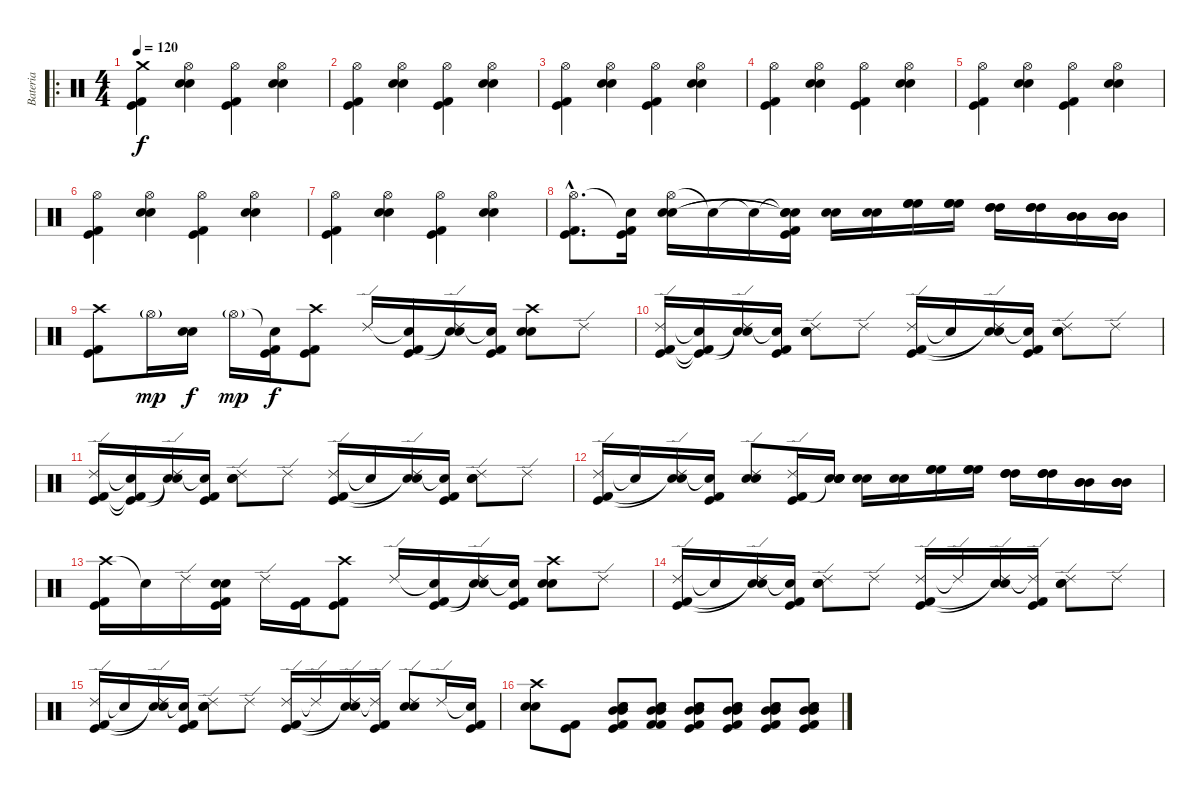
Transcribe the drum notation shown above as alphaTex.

\track ("Bateria" "Bateria") {instrument percussion}
\staff {score}
\articulation defaults
\ro
\ts (4 4)
\tempo 120
\clef neutral
\ks c
("Crash medium (hit)" "Kick (hit)" "Kick (hit) 2").4{dy f} ("Hi-Hat (open)" "Electric Snare (hit)" "Snare (hit) 2").4 ("Hi-Hat (open)" "Kick (hit)" "Kick (hit) 2").4 ("Hi-Hat (open)" "Electric Snare (hit)" "Snare (hit) 2").4 |
("Hi-Hat (open)" "Kick (hit)" "Kick (hit) 2").4 ("Hi-Hat (open)" "Electric Snare (hit)" "Snare (hit) 2").4 ("Hi-Hat (open)" "Kick (hit)" "Kick (hit) 2").4 ("Hi-Hat (open)" "Electric Snare (hit)" "Snare (hit) 2").4 |
("Hi-Hat (open)" "Kick (hit)" "Kick (hit) 2").4 ("Hi-Hat (open)" "Electric Snare (hit)" "Snare (hit) 2").4 ("Hi-Hat (open)" "Kick (hit)" "Kick (hit) 2").4 ("Hi-Hat (open)" "Electric Snare (hit)" "Snare (hit) 2").4 |
("Hi-Hat (open)" "Kick (hit)" "Kick (hit) 2").4 ("Hi-Hat (open)" "Electric Snare (hit)" "Snare (hit) 2").4 ("Hi-Hat (open)" "Kick (hit)" "Kick (hit) 2").4 ("Hi-Hat (open)" "Electric Snare (hit)" "Snare (hit) 2").4 |
("Hi-Hat (open)" "Kick (hit)" "Kick (hit) 2").4 ("Hi-Hat (open)" "Electric Snare (hit)" "Snare (hit) 2").4 ("Hi-Hat (open)" "Kick (hit)" "Kick (hit) 2").4 ("Hi-Hat (open)" "Electric Snare (hit)" "Snare (hit) 2").4 |
("Hi-Hat (open)" "Kick (hit)" "Kick (hit) 2").4 ("Hi-Hat (open)" "Electric Snare (hit)" "Snare (hit) 2").4 ("Hi-Hat (open)" "Kick (hit)" "Kick (hit) 2").4 ("Hi-Hat (open)" "Electric Snare (hit)" "Snare (hit) 2").4 |
("Hi-Hat (open)" "Kick (hit)" "Kick (hit) 2").4 ("Hi-Hat (open)" "Electric Snare (hit)" "Snare (hit) 2").4 ("Hi-Hat (open)" "Kick (hit)" "Kick (hit) 2").4 ("Hi-Hat (open)" "Electric Snare (hit)" "Snare (hit) 2").4 |
("Hi-Hat (open)"{hac} "Kick (hit)"{hac} "Kick (hit) 2"{hac}).8{d} ("Snare (hit)"{t} "Kick (hit) 2" "Kick (hit)").16 ("Hi-Hat (open)" "Electric Snare (hit)" "Snare (hit) 2").16 "Snare (hit)"{t}.16 "Snare (hit)"{t}.16 ("Snare (hit)"{t} "Snare (hit)"{t} "Snare (hit)"{t} "Kick (hit)" "Kick (hit) 2").16 ("Electric Snare (hit)" "Snare (hit) 2").16 ("Electric Snare (hit)" "Snare (hit) 2").16 ("High Floor Tom (hit)" "High Floor Tom (hit)" "High Floor Tom (hit)").16 ("High Floor Tom (hit)" "High Floor Tom (hit)" "High Floor Tom (hit)").16 ("High Tom (hit)" "High Tom (hit)" "High Tom (hit)").16 ("High Tom (hit)" "High Tom (hit)" "High Tom (hit)").16 ("Mid Tom (hit)" "Mid Tom (hit)" "Mid Tom (hit)").16 ("Mid Tom (hit)" "Mid Tom (hit)" "Mid Tom (hit)").16 |
("Crash high (hit)" "Kick (hit)" "Kick (hit) 2").8 "Hi-Hat (open)"{g}.16{dy mp} ("Electric Snare (hit)" "Snare (hit) 2").16{dy f} "Hi-Hat (open)"{g}.16{dy mp} ("Snare (hit)"{t} "Kick (hit)" "Kick (hit) 2").16{dy f} ("Crash high (hit)" "Kick (hit) 2" "Kick (hit)").8 "Ride (edge) 2".16 ("Snare (hit)"{t} "Kick (hit)" "Kick (hit) 2").16 ("Ride (edge) 2" "Snare (hit)"{t} "Snare (hit)"{t}).16 ("Snare (hit)"{t} "Kick (hit)" "Kick (hit) 2").16 ("Crash high (hit)" "Snare (hit) 2" "Electric Snare (hit)").8 "Ride (edge) 2".8 |
("Ride (edge) 2" "Kick (hit)" "Kick (hit) 2").16 ("Snare (hit)"{t} "Kick (hit)"{t} "Kick (hit) 2"{t}).16 ("Ride (edge) 2" "Snare (hit)"{t} "Snare (hit)"{t}).16 ("Snare (hit)"{t} "Kick (hit)" "Kick (hit) 2").16 ("Ride (edge) 2" "Electric Snare (hit)" "Snare (hit) 2").8 "Ride (edge) 2".8 ("Ride (edge) 2" "Kick (hit)" "Kick (hit) 2").16 "Snare (hit)"{t}.16 ("Ride (edge) 2" "Snare (hit)"{t} "Snare (hit)"{t}).16 ("Snare (hit)"{t} "Kick (hit) 2" "Kick (hit)").16 ("Ride (edge) 2" "Electric Snare (hit)" "Snare (hit) 2").8 "Ride (edge) 2".8 |
("Ride (edge) 2" "Kick (hit)" "Kick (hit) 2").16 ("Snare (hit)"{t} "Kick (hit)"{t} "Kick (hit) 2"{t}).16 ("Ride (edge) 2" "Snare (hit)"{t} "Snare (hit)"{t}).16 ("Snare (hit)"{t} "Kick (hit)" "Kick (hit) 2").16 ("Ride (edge) 2" "Electric Snare (hit)" "Snare (hit) 2").8 "Ride (edge) 2".8 ("Ride (edge) 2" "Kick (hit)" "Kick (hit) 2").16 "Snare (hit)"{t}.16 ("Ride (edge) 2" "Snare (hit)"{t} "Snare (hit)"{t}).16 ("Snare (hit)"{t} "Kick (hit) 2" "Kick (hit)").16 ("Ride (edge) 2" "Electric Snare (hit)" "Snare (hit) 2").8 "Ride (edge) 2".8 |
("Ride (edge) 2" "Kick (hit)" "Kick (hit) 2").16 "Snare (hit)"{t}.16 ("Ride (edge) 2" "Snare (hit)"{t} "Snare (hit)"{t}).16 ("Snare (hit)"{t} "Kick (hit) 2" "Kick (hit)").16 ("Ride (edge) 2" "Electric Snare (hit)" "Snare (hit) 2").8 ("Ride (edge) 2" "Kick (hit)" "Kick (hit) 2").16 ("Electric Snare (hit)" "Snare (hit) 2" "Snare (hit)"{t} "Snare (hit)").16 ("Electric Snare (hit)" "Snare (hit) 2").16 ("Electric Snare (hit)" "Snare (hit) 2").16 ("High Floor Tom (hit)" "High Floor Tom (hit)" "High Floor Tom (hit)").16 ("High Floor Tom (hit)" "High Floor Tom (hit)" "High Floor Tom (hit)").16 ("High Tom (hit)" "High Tom (hit)" "High Tom (hit)").16 ("High Tom (hit)" "High Tom (hit)" "High Tom (hit)").16 ("Mid Tom (hit)" "Mid Tom (hit)" "Mid Tom (hit)").16 ("Mid Tom (hit)" "Mid Tom (hit)" "Mid Tom (hit)").16 |
("Crash high (hit)" "Kick (hit)" "Kick (hit) 2").16 "Snare (hit)"{t}.16 "Ride (edge) 2".16 ("Electric Snare (hit)" "Snare (hit) 2" "Kick (hit)" "Kick (hit) 2").16 "Ride (edge) 2".16 ("Kick (hit)" "Kick (hit) 2").16 ("Crash high (hit)" "Kick (hit) 2" "Kick (hit)").8 "Ride (edge) 2".16 ("Snare (hit)"{t} "Kick (hit)" "Kick (hit) 2").16 ("Ride (edge) 2" "Snare (hit)"{t} "Snare (hit)"{t}).16 ("Snare (hit)"{t} "Kick (hit)" "Kick (hit) 2").16 ("Crash high (hit)" "Electric Snare (hit)" "Snare (hit) 2").8 "Ride (edge) 2".8 |
("Ride (edge) 2" "Kick (hit)" "Kick (hit) 2").16 "Snare (hit)"{t}.16 ("Ride (edge) 2" "Snare (hit)"{t} "Snare (hit)"{t}).16 ("Snare (hit)"{t} "Kick (hit)" "Kick (hit) 2").16 ("Ride (edge) 2" "Electric Snare (hit)" "Snare (hit) 2").8 "Ride (edge) 2".8 ("Ride (edge) 2" "Kick (hit) 2" "Kick (hit)").16 "Ride (edge) 2"{t}.16 ("Ride (edge) 2" "Snare (hit)"{t} "Snare (hit)"{t}).16 ("Ride (edge) 2"{t} "Kick (hit)" "Kick (hit) 2").16 ("Ride (edge) 2" "Electric Snare (hit)" "Snare (hit) 2").8 "Ride (edge) 2".8 |
("Ride (edge) 2" "Kick (hit)" "Kick (hit) 2").16 "Snare (hit)"{t}.16 ("Ride (edge) 2" "Snare (hit)"{t} "Snare (hit)"{t}).16 ("Snare (hit)"{t} "Kick (hit)" "Kick (hit) 2").16 ("Ride (edge) 2" "Electric Snare (hit)" "Snare (hit) 2").8 "Ride (edge) 2".8 ("Ride (edge) 2" "Kick (hit) 2" "Kick (hit)").16 "Ride (edge) 2"{t}.16 ("Ride (edge) 2" "Snare (hit)"{t} "Snare (hit)"{t}).16 ("Ride (edge) 2"{t} "Kick (hit)" "Kick (hit) 2").16 ("Ride (edge) 2" "Electric Snare (hit)" "Snare (hit) 2").8 "Ride (edge) 2".16 ("Snare (hit)"{t} "Kick (hit)" "Kick (hit) 2").16 |
("Crash high (hit)" "Electric Snare (hit)" "Snare (hit) 2").8 ("Kick (hit)" "Kick (hit) 2").8 ("Mid Tom (hit)" "Electric Snare (hit)" "Snare (hit) 2" "Mid Tom (hit)" "Kick (hit)" "Kick (hit) 2").8 ("Mid Tom (hit)" "Electric Snare (hit)" "Snare (hit) 2" "Mid Tom (hit)" "Kick (hit) 2" "Kick (hit) 2").8 ("Electric Snare (hit)" "Snare (hit) 2" "Mid Tom (hit)" "Mid Tom (hit)" "Kick (hit)" "Kick (hit) 2").8 ("Electric Snare (hit)" "Snare (hit) 2" "Mid Tom (hit)" "Mid Tom (hit)" "Kick (hit)" "Kick (hit) 2").8 ("Electric Snare (hit)" "Snare (hit) 2" "Mid Tom (hit)" "Mid Tom (hit)" "Kick (hit)" "Kick (hit) 2").8 ("Electric Snare (hit)" "Snare (hit) 2" "Mid Tom (hit)" "Mid Tom (hit)" "Kick (hit)" "Kick (hit) 2").8
